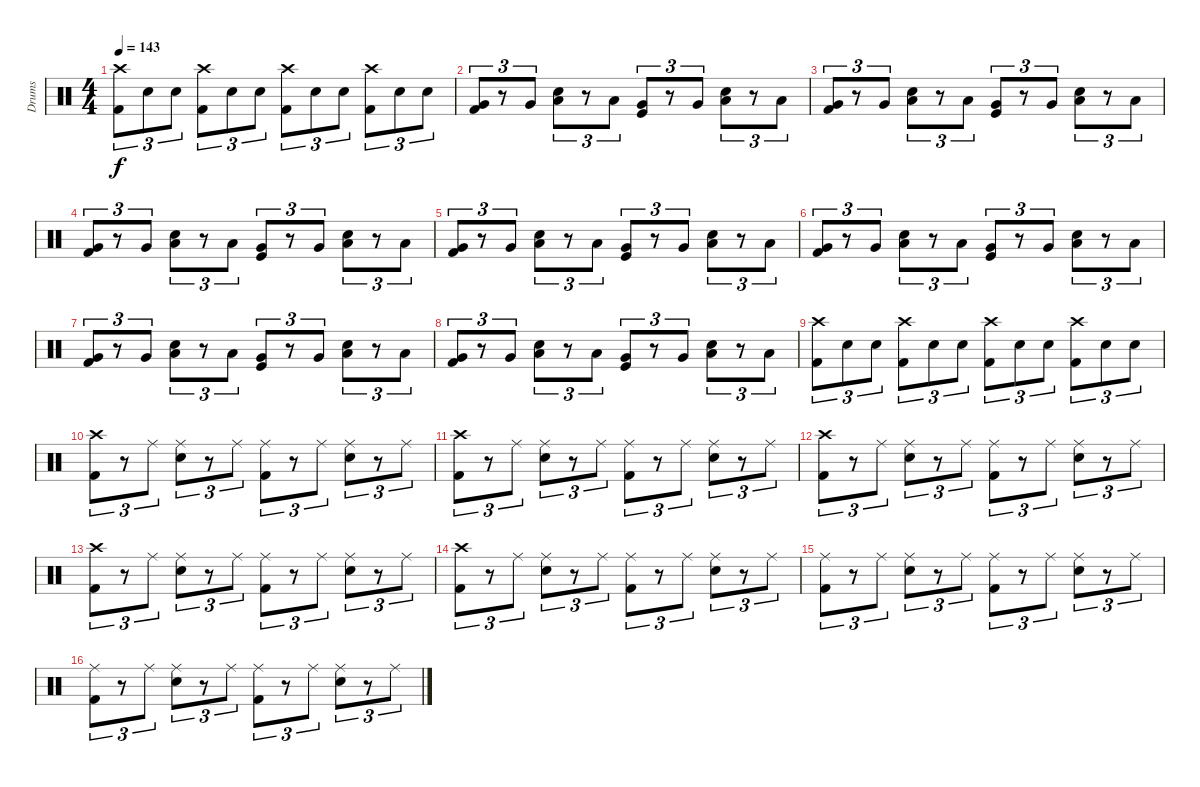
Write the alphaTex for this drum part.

\track ("Drums" "Drums") {instrument percussion}
\staff {score}
\articulation defaults
\ts (4 4)
\tempo 143
\clef neutral
\ks c
("Crash high (hit)" "Kick (hit) 2").8{tu (3 2) dy f} "Snare (hit) 2".8{tu (3 2)} "Snare (hit) 2".8{tu (3 2)} ("Crash high (hit)" "Kick (hit) 2").8{tu (3 2)} "Snare (hit) 2".8{tu (3 2)} "Snare (hit) 2".8{tu (3 2)} ("Crash high (hit)" "Kick (hit) 2").8{tu (3 2)} "Snare (hit) 2".8{tu (3 2)} "Snare (hit) 2".8{tu (3 2)} ("Crash high (hit)" "Kick (hit) 2").8{tu (3 2)} "Snare (hit) 2".8{tu (3 2)} "Snare (hit) 2".8{tu (3 2)} |
("Kick (hit) 2" "Very Low Tom (hit)").8{tu (3 2)} r.8{tu (3 2)} "Very Low Tom (hit)".8{tu (3 2)} ("Snare (hit) 2" "Low Tom (hit)").8{tu (3 2)} r.8{tu (3 2)} "Low Tom (hit)".8{tu (3 2)} ("Kick (hit)" "Very Low Tom (hit)").8{tu (3 2)} r.8{tu (3 2)} "Very Low Tom (hit)".8{tu (3 2)} ("Snare (hit) 2" "Low Tom (hit)").8{tu (3 2)} r.8{tu (3 2)} "Low Tom (hit)".8{tu (3 2)} |
("Kick (hit) 2" "Very Low Tom (hit)").8{tu (3 2)} r.8{tu (3 2)} "Very Low Tom (hit)".8{tu (3 2)} ("Snare (hit) 2" "Low Tom (hit)").8{tu (3 2)} r.8{tu (3 2)} "Low Tom (hit)".8{tu (3 2)} ("Kick (hit)" "Very Low Tom (hit)").8{tu (3 2)} r.8{tu (3 2)} "Very Low Tom (hit)".8{tu (3 2)} ("Snare (hit) 2" "Low Tom (hit)").8{tu (3 2)} r.8{tu (3 2)} "Low Tom (hit)".8{tu (3 2)} |
("Kick (hit) 2" "Very Low Tom (hit)").8{tu (3 2)} r.8{tu (3 2)} "Very Low Tom (hit)".8{tu (3 2)} ("Snare (hit) 2" "Low Tom (hit)").8{tu (3 2)} r.8{tu (3 2)} "Low Tom (hit)".8{tu (3 2)} ("Kick (hit)" "Very Low Tom (hit)").8{tu (3 2)} r.8{tu (3 2)} "Very Low Tom (hit)".8{tu (3 2)} ("Snare (hit) 2" "Low Tom (hit)").8{tu (3 2)} r.8{tu (3 2)} "Low Tom (hit)".8{tu (3 2)} |
("Kick (hit) 2" "Very Low Tom (hit)").8{tu (3 2)} r.8{tu (3 2)} "Very Low Tom (hit)".8{tu (3 2)} ("Snare (hit) 2" "Low Tom (hit)").8{tu (3 2)} r.8{tu (3 2)} "Low Tom (hit)".8{tu (3 2)} ("Kick (hit)" "Very Low Tom (hit)").8{tu (3 2)} r.8{tu (3 2)} "Very Low Tom (hit)".8{tu (3 2)} ("Snare (hit) 2" "Low Tom (hit)").8{tu (3 2)} r.8{tu (3 2)} "Low Tom (hit)".8{tu (3 2)} |
("Kick (hit) 2" "Very Low Tom (hit)").8{tu (3 2)} r.8{tu (3 2)} "Very Low Tom (hit)".8{tu (3 2)} ("Snare (hit) 2" "Low Tom (hit)").8{tu (3 2)} r.8{tu (3 2)} "Low Tom (hit)".8{tu (3 2)} ("Kick (hit)" "Very Low Tom (hit)").8{tu (3 2)} r.8{tu (3 2)} "Very Low Tom (hit)".8{tu (3 2)} ("Snare (hit) 2" "Low Tom (hit)").8{tu (3 2)} r.8{tu (3 2)} "Low Tom (hit)".8{tu (3 2)} |
("Kick (hit) 2" "Very Low Tom (hit)").8{tu (3 2)} r.8{tu (3 2)} "Very Low Tom (hit)".8{tu (3 2)} ("Snare (hit) 2" "Low Tom (hit)").8{tu (3 2)} r.8{tu (3 2)} "Low Tom (hit)".8{tu (3 2)} ("Kick (hit)" "Very Low Tom (hit)").8{tu (3 2)} r.8{tu (3 2)} "Very Low Tom (hit)".8{tu (3 2)} ("Snare (hit) 2" "Low Tom (hit)").8{tu (3 2)} r.8{tu (3 2)} "Low Tom (hit)".8{tu (3 2)} |
("Kick (hit) 2" "Very Low Tom (hit)").8{tu (3 2)} r.8{tu (3 2)} "Very Low Tom (hit)".8{tu (3 2)} ("Snare (hit) 2" "Low Tom (hit)").8{tu (3 2)} r.8{tu (3 2)} "Low Tom (hit)".8{tu (3 2)} ("Kick (hit)" "Very Low Tom (hit)").8{tu (3 2)} r.8{tu (3 2)} "Very Low Tom (hit)".8{tu (3 2)} ("Snare (hit) 2" "Low Tom (hit)").8{tu (3 2)} r.8{tu (3 2)} "Low Tom (hit)".8{tu (3 2)} |
("Crash high (hit)" "Kick (hit) 2").8{tu (3 2)} "Snare (hit) 2".8{tu (3 2)} "Snare (hit) 2".8{tu (3 2)} ("Crash high (hit)" "Kick (hit) 2").8{tu (3 2)} "Snare (hit) 2".8{tu (3 2)} "Snare (hit) 2".8{tu (3 2)} ("Crash high (hit)" "Kick (hit) 2").8{tu (3 2)} "Snare (hit) 2".8{tu (3 2)} "Snare (hit) 2".8{tu (3 2)} ("Crash high (hit)" "Kick (hit) 2").8{tu (3 2)} "Snare (hit) 2".8{tu (3 2)} "Snare (hit) 2".8{tu (3 2)} |
("Kick (hit) 2" "Crash high (hit)").8{tu (3 2)} r.8{tu (3 2)} "Ride (middle)".8{tu (3 2)} ("Snare (hit) 2" "Ride (middle)").8{tu (3 2)} r.8{tu (3 2)} "Ride (middle)".8{tu (3 2)} ("Kick (hit) 2" "Ride (middle)").8{tu (3 2)} r.8{tu (3 2)} "Ride (middle)".8{tu (3 2)} ("Snare (hit) 2" "Ride (middle)").8{tu (3 2)} r.8{tu (3 2)} "Ride (middle)".8{tu (3 2)} |
("Kick (hit) 2" "Crash high (hit)").8{tu (3 2)} r.8{tu (3 2)} "Ride (middle)".8{tu (3 2)} ("Snare (hit) 2" "Ride (middle)").8{tu (3 2)} r.8{tu (3 2)} "Ride (middle)".8{tu (3 2)} ("Kick (hit) 2" "Ride (middle)").8{tu (3 2)} r.8{tu (3 2)} "Ride (middle)".8{tu (3 2)} ("Snare (hit) 2" "Ride (middle)").8{tu (3 2)} r.8{tu (3 2)} "Ride (middle)".8{tu (3 2)} |
("Kick (hit) 2" "Crash high (hit)").8{tu (3 2)} r.8{tu (3 2)} "Ride (middle)".8{tu (3 2)} ("Snare (hit) 2" "Ride (middle)").8{tu (3 2)} r.8{tu (3 2)} "Ride (middle)".8{tu (3 2)} ("Kick (hit) 2" "Ride (middle)").8{tu (3 2)} r.8{tu (3 2)} "Ride (middle)".8{tu (3 2)} ("Snare (hit) 2" "Ride (middle)").8{tu (3 2)} r.8{tu (3 2)} "Ride (middle)".8{tu (3 2)} |
("Kick (hit) 2" "Crash high (hit)").8{tu (3 2)} r.8{tu (3 2)} "Ride (middle)".8{tu (3 2)} ("Snare (hit) 2" "Ride (middle)").8{tu (3 2)} r.8{tu (3 2)} "Ride (middle)".8{tu (3 2)} ("Kick (hit) 2" "Ride (middle)").8{tu (3 2)} r.8{tu (3 2)} "Ride (middle)".8{tu (3 2)} ("Snare (hit) 2" "Ride (middle)").8{tu (3 2)} r.8{tu (3 2)} "Ride (middle)".8{tu (3 2)} |
("Kick (hit) 2" "Crash high (hit)").8{tu (3 2)} r.8{tu (3 2)} "Ride (middle)".8{tu (3 2)} ("Snare (hit) 2" "Ride (middle)").8{tu (3 2)} r.8{tu (3 2)} "Ride (middle)".8{tu (3 2)} ("Kick (hit) 2" "Ride (middle)").8{tu (3 2)} r.8{tu (3 2)} "Ride (middle)".8{tu (3 2)} ("Snare (hit) 2" "Ride (middle)").8{tu (3 2)} r.8{tu (3 2)} "Ride (middle)".8{tu (3 2)} |
("Kick (hit) 2" "Ride (middle)").8{tu (3 2)} r.8{tu (3 2)} "Ride (middle)".8{tu (3 2)} ("Snare (hit) 2" "Ride (middle)").8{tu (3 2)} r.8{tu (3 2)} "Ride (middle)".8{tu (3 2)} ("Kick (hit) 2" "Ride (middle)").8{tu (3 2)} r.8{tu (3 2)} "Ride (middle)".8{tu (3 2)} ("Snare (hit) 2" "Ride (middle)").8{tu (3 2)} r.8{tu (3 2)} "Ride (middle)".8{tu (3 2)} |
("Kick (hit) 2" "Ride (middle)").8{tu (3 2)} r.8{tu (3 2)} "Ride (middle)".8{tu (3 2)} ("Snare (hit) 2" "Ride (middle)").8{tu (3 2)} r.8{tu (3 2)} "Ride (middle)".8{tu (3 2)} ("Kick (hit) 2" "Ride (middle)").8{tu (3 2)} r.8{tu (3 2)} "Ride (middle)".8{tu (3 2)} ("Snare (hit) 2" "Ride (middle)").8{tu (3 2)} r.8{tu (3 2)} "Ride (middle)".8{tu (3 2)}
